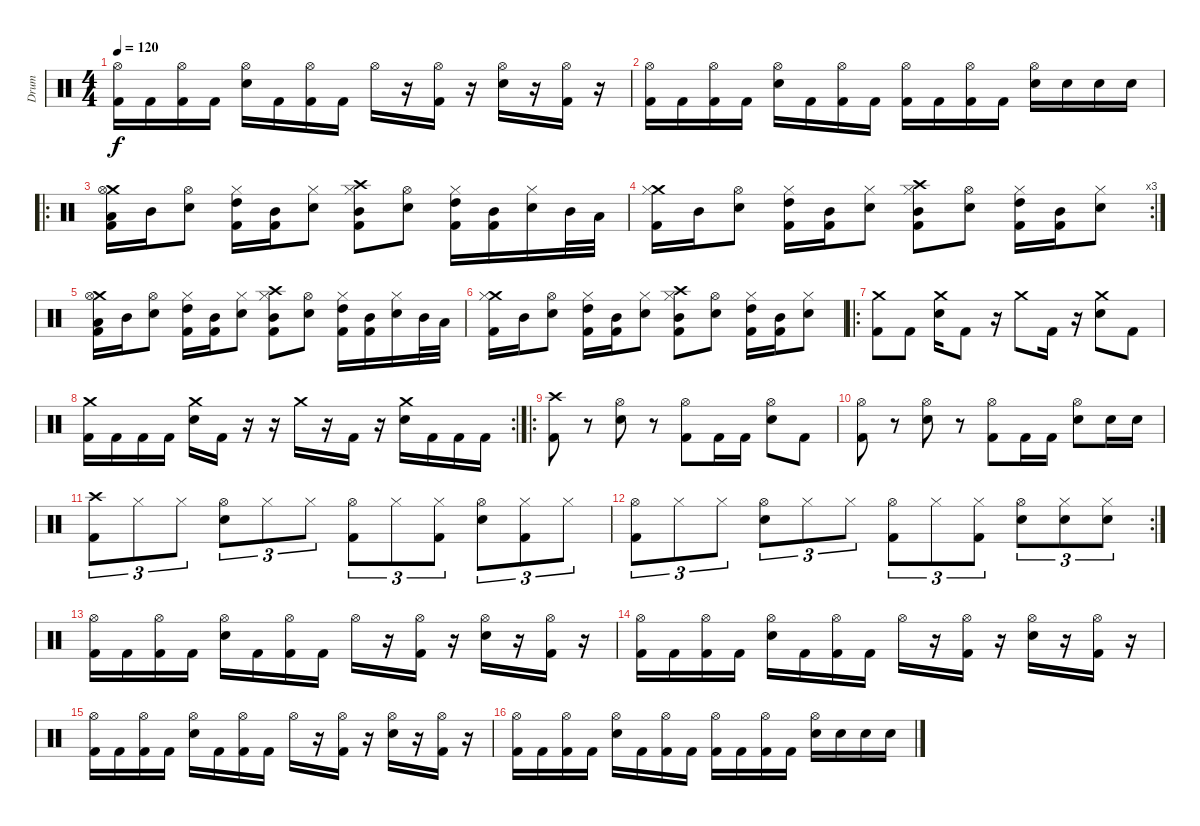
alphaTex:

\track ("Drum" "Drum") {instrument percussion}
\staff {score}
\articulation defaults
\ts (4 4)
\tempo 120
\clef neutral
\ks c
("Hi-Hat (open)" "Kick (hit) 2").16{dy f} "Kick (hit) 2".16 ("Hi-Hat (open)" "Kick (hit) 2").16 "Kick (hit) 2".16 ("Hi-Hat (open)" "Electric Snare (hit)").16 "Kick (hit) 2".16 ("Hi-Hat (open)" "Kick (hit) 2").16 "Kick (hit) 2".16 "Hi-Hat (open)".16 r.16 ("Hi-Hat (open)" "Kick (hit) 2").16 r.16 ("Hi-Hat (open)" "Electric Snare (hit)").16 r.16 ("Hi-Hat (open)" "Kick (hit) 2").16 r.16 |
("Hi-Hat (open)" "Kick (hit) 2").16 "Kick (hit) 2".16 ("Hi-Hat (open)" "Kick (hit) 2").16 "Kick (hit) 2".16 ("Hi-Hat (open)" "Electric Snare (hit)").16 "Kick (hit) 2".16 ("Hi-Hat (open)" "Kick (hit) 2").16 "Kick (hit) 2".16 ("Hi-Hat (open)" "Kick (hit) 2").16 "Kick (hit) 2".16 ("Hi-Hat (open)" "Kick (hit) 2").16 "Kick (hit) 2".16 ("Hi-Hat (open)" "Electric Snare (hit)").16 "Electric Snare (hit)".16 "Electric Snare (hit)".16 "Electric Snare (hit)".16 |
\ro
("Crash medium (hit)" "Hi-Hat (open)" "Low Tom (hit)" "Kick (hit) 2").16 "Mid Tom (hit)".16 ("Hi-Hat (open)" "Snare (hit) 2").8 ("Hi-Hat (closed)" "High Tom (hit)" "Kick (hit) 2").16 ("Mid Tom (hit)" "Kick (hit) 2").16 ("Hi-Hat (closed)" "Snare (hit) 2").8 ("Crash high (hit)" "Hi-Hat (closed)" "Mid Tom (hit)" "Kick (hit) 2").8 ("Hi-Hat (open)" "Snare (hit) 2").8 ("Hi-Hat (closed)" "High Tom (hit)" "Kick (hit) 2").16 ("Mid Tom (hit)" "Kick (hit) 2").16 ("Hi-Hat (closed)" "Snare (hit) 2").16 "Mid Tom (hit)".32 "Low Tom (hit)".32 |
\rc 3
("Crash medium (hit)" "Hi-Hat (closed)" "Kick (hit) 2").16 "Mid Tom (hit)".16 ("Hi-Hat (open)" "Snare (hit) 2").8 ("Hi-Hat (closed)" "High Tom (hit)" "Kick (hit) 2").16 ("Mid Tom (hit)" "Kick (hit) 2").16 ("Hi-Hat (closed)" "Snare (hit) 2").8 ("Crash high (hit)" "Hi-Hat (closed)" "Mid Tom (hit)" "Kick (hit) 2").8 ("Hi-Hat (open)" "Snare (hit) 2").8 ("Hi-Hat (closed)" "High Tom (hit)" "Kick (hit) 2").16 ("Mid Tom (hit)" "Kick (hit) 2").16 ("Hi-Hat (closed)" "Snare (hit) 2").8 |
("Crash medium (hit)" "Hi-Hat (open)" "Low Tom (hit)" "Kick (hit) 2").16 "Mid Tom (hit)".16 ("Hi-Hat (open)" "Snare (hit) 2").8 ("Hi-Hat (closed)" "High Tom (hit)" "Kick (hit) 2").16 ("Mid Tom (hit)" "Kick (hit) 2").16 ("Hi-Hat (closed)" "Snare (hit) 2").8 ("Crash high (hit)" "Hi-Hat (closed)" "Mid Tom (hit)" "Kick (hit) 2").8 ("Hi-Hat (open)" "Snare (hit) 2").8 ("Hi-Hat (closed)" "High Tom (hit)" "Kick (hit) 2").16 ("Mid Tom (hit)" "Kick (hit) 2").16 ("Hi-Hat (closed)" "Snare (hit) 2").16 "Mid Tom (hit)".32 "Low Tom (hit)".32 |
("Crash medium (hit)" "Hi-Hat (closed)" "Kick (hit) 2").16 "Mid Tom (hit)".16 ("Hi-Hat (open)" "Snare (hit) 2").8 ("Hi-Hat (closed)" "High Tom (hit)" "Kick (hit) 2").16 ("Mid Tom (hit)" "Kick (hit) 2").16 ("Hi-Hat (closed)" "Snare (hit) 2").8 ("Crash high (hit)" "Hi-Hat (closed)" "Mid Tom (hit)" "Kick (hit) 2").8 ("Hi-Hat (open)" "Snare (hit) 2").8 ("Hi-Hat (closed)" "High Tom (hit)" "Kick (hit) 2").16 ("Mid Tom (hit)" "Kick (hit) 2").16 ("Hi-Hat (closed)" "Snare (hit) 2").8 |
\ro
("Crash medium (hit)" "Kick (hit) 2").8 "Kick (hit) 2".8 ("Crash medium (hit)" "Electric Snare (hit)").16 "Kick (hit) 2".8 r.16 "Crash medium (hit)".8 "Kick (hit) 2".16 r.16 ("Crash medium (hit)" "Electric Snare (hit)").8 "Kick (hit) 2".8 |
\rc 2
("Crash medium (hit)" "Kick (hit) 2").16 "Kick (hit) 2".16 "Kick (hit) 2".16 "Kick (hit) 2".16 ("Crash medium (hit)" "Electric Snare (hit)").16 "Kick (hit) 2".16 r.16 r.16 "Crash medium (hit)".16 r.16 "Kick (hit) 2".16 r.16 ("Crash medium (hit)" "Electric Snare (hit)").16 "Kick (hit) 2".16 "Kick (hit) 2".16 "Kick (hit) 2".16 |
\ro
("Crash high (hit)" "Kick (hit) 2").8 r.8 ("Hi-Hat (open)" "Electric Snare (hit)").8 r.8 ("Hi-Hat (open)" "Kick (hit) 2").8 "Kick (hit) 2".16 "Kick (hit) 2".16 ("Hi-Hat (open)" "Electric Snare (hit)").8 "Kick (hit) 2".8 |
("Hi-Hat (open)" "Kick (hit) 2").8 r.8 ("Hi-Hat (open)" "Electric Snare (hit)").8 r.8 ("Hi-Hat (open)" "Kick (hit) 2").8 "Kick (hit) 2".16 "Kick (hit) 2".16 ("Hi-Hat (open)" "Electric Snare (hit)").8 "Electric Snare (hit)".16 "Electric Snare (hit)".16 |
("Crash high (hit)" "Kick (hit) 2").8{tu (3 2)} "Hi-Hat (closed)".8{tu (3 2)} "Hi-Hat (closed)".8{tu (3 2)} ("Hi-Hat (open)" "Electric Snare (hit)").8{tu (3 2)} "Hi-Hat (closed)".8{tu (3 2)} "Hi-Hat (closed)".8{tu (3 2)} ("Hi-Hat (open)" "Kick (hit) 2").8{tu (3 2)} "Hi-Hat (closed)".8{tu (3 2)} ("Hi-Hat (closed)" "Kick (hit) 2").8{tu (3 2)} ("Hi-Hat (open)" "Electric Snare (hit)").8{tu (3 2)} ("Hi-Hat (closed)" "Kick (hit) 2").8{tu (3 2)} "Hi-Hat (closed)".8{tu (3 2)} |
\rc 2
("Hi-Hat (open)" "Kick (hit) 2").8{tu (3 2)} "Hi-Hat (closed)".8{tu (3 2)} "Hi-Hat (closed)".8{tu (3 2)} ("Hi-Hat (open)" "Electric Snare (hit)").8{tu (3 2)} "Hi-Hat (closed)".8{tu (3 2)} "Hi-Hat (closed)".8{tu (3 2)} ("Hi-Hat (open)" "Kick (hit) 2").8{tu (3 2)} "Hi-Hat (closed)".8{tu (3 2)} ("Hi-Hat (closed)" "Kick (hit) 2").8{tu (3 2)} ("Hi-Hat (open)" "Electric Snare (hit)").8{tu (3 2)} ("Hi-Hat (closed)" "Electric Snare (hit)").8{tu (3 2)} ("Hi-Hat (closed)" "Electric Snare (hit)").8{tu (3 2)} |
("Hi-Hat (open)" "Kick (hit) 2").16 "Kick (hit) 2".16 ("Hi-Hat (open)" "Kick (hit) 2").16 "Kick (hit) 2".16 ("Hi-Hat (open)" "Electric Snare (hit)").16 "Kick (hit) 2".16 ("Hi-Hat (open)" "Kick (hit) 2").16 "Kick (hit) 2".16 "Hi-Hat (open)".16 r.16 ("Hi-Hat (open)" "Kick (hit) 2").16 r.16 ("Hi-Hat (open)" "Electric Snare (hit)").16 r.16 ("Hi-Hat (open)" "Kick (hit) 2").16 r.16 |
("Hi-Hat (open)" "Kick (hit) 2").16 "Kick (hit) 2".16 ("Hi-Hat (open)" "Kick (hit) 2").16 "Kick (hit) 2".16 ("Hi-Hat (open)" "Electric Snare (hit)").16 "Kick (hit) 2".16 ("Hi-Hat (open)" "Kick (hit) 2").16 "Kick (hit) 2".16 "Hi-Hat (open)".16 r.16 ("Hi-Hat (open)" "Kick (hit) 2").16 r.16 ("Hi-Hat (open)" "Electric Snare (hit)").16 r.16 ("Hi-Hat (open)" "Kick (hit) 2").16 r.16 |
("Hi-Hat (open)" "Kick (hit) 2").16 "Kick (hit) 2".16 ("Hi-Hat (open)" "Kick (hit) 2").16 "Kick (hit) 2".16 ("Hi-Hat (open)" "Electric Snare (hit)").16 "Kick (hit) 2".16 ("Hi-Hat (open)" "Kick (hit) 2").16 "Kick (hit) 2".16 "Hi-Hat (open)".16 r.16 ("Hi-Hat (open)" "Kick (hit) 2").16 r.16 ("Hi-Hat (open)" "Electric Snare (hit)").16 r.16 ("Hi-Hat (open)" "Kick (hit) 2").16 r.16 |
("Hi-Hat (open)" "Kick (hit) 2").16 "Kick (hit) 2".16 ("Hi-Hat (open)" "Kick (hit) 2").16 "Kick (hit) 2".16 ("Hi-Hat (open)" "Electric Snare (hit)").16 "Kick (hit) 2".16 ("Hi-Hat (open)" "Kick (hit) 2").16 "Kick (hit) 2".16 ("Hi-Hat (open)" "Kick (hit) 2").16 "Kick (hit) 2".16 ("Hi-Hat (open)" "Kick (hit) 2").16 "Kick (hit) 2".16 ("Hi-Hat (open)" "Electric Snare (hit)").16 "Electric Snare (hit)".16 "Electric Snare (hit)".16 "Electric Snare (hit)".16
